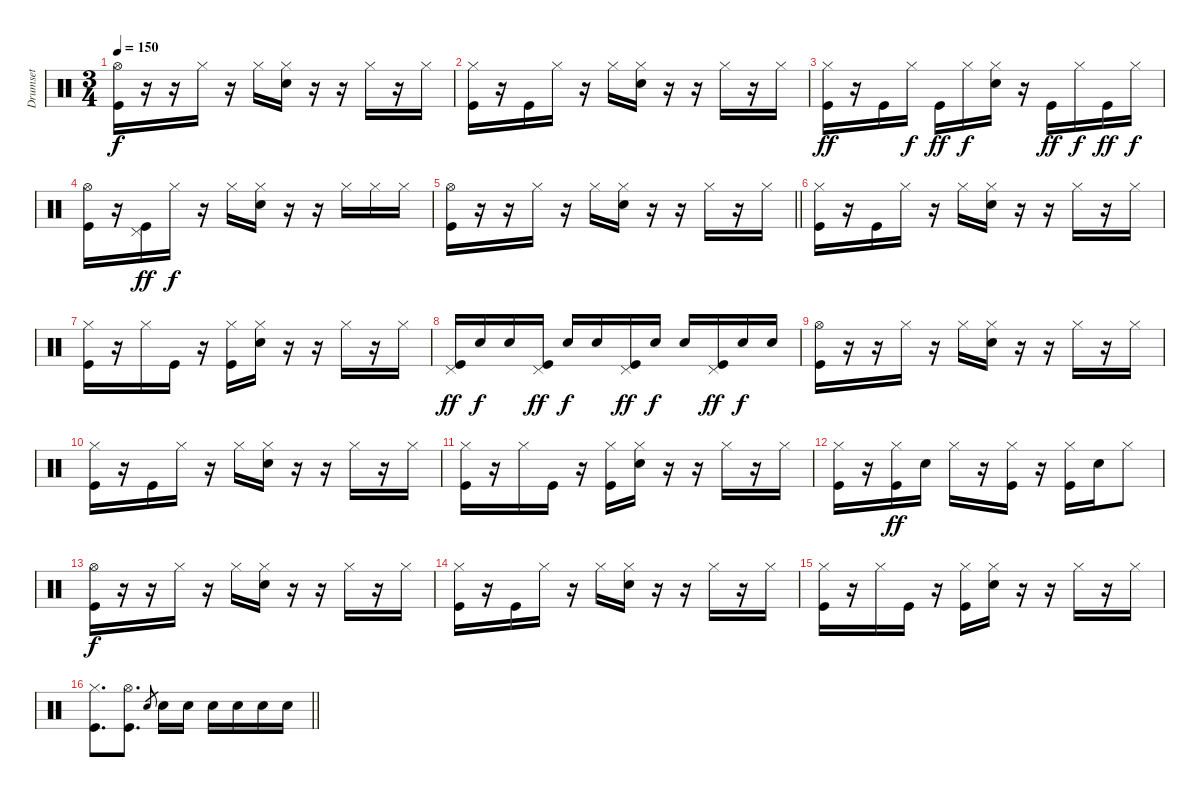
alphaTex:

\track ("Drumset" "Drumset") {instrument percussion}
\staff {score}
\articulation defaults
\ts (3 4)
\tempo 150
\clef neutral
\ks c
("Hi-Hat (open)" "Kick (hit)").16{dy f} r.16 r.16 "Hi-Hat (closed)".16 r.16 "Hi-Hat (closed)".16 ("Hi-Hat (closed)" "Snare (hit) 2").16 r.16 r.16 "Hi-Hat (closed)".16 r.16 "Hi-Hat (closed)".16 |
("Hi-Hat (closed)" "Kick (hit)").16 r.16 "Kick (hit)".16 "Hi-Hat (closed)".16 r.16 "Hi-Hat (closed)".16 ("Hi-Hat (closed)" "Snare (hit) 2").16 r.16 r.16 "Hi-Hat (closed)".16 r.16 "Hi-Hat (closed)".16 |
("Hi-Hat (closed)" "Kick (hit)").16{dy ff} r.16 "Kick (hit)".16 "Hi-Hat (closed)".16{dy f} "Kick (hit)".16{dy ff} "Hi-Hat (closed)".16{dy f} ("Hi-Hat (closed)" "Snare (hit) 2").16 r.16 "Kick (hit)".16{dy ff} "Hi-Hat (closed)".16{dy f} "Kick (hit)".16{dy ff} "Hi-Hat (closed)".16{dy f} |
("Hi-Hat (open)" "Kick (hit)").16 r.16 ("Pedal Hi-Hat (hit)" "Kick (hit)").16{dy ff} "Hi-Hat (closed)".16{dy f} r.16 "Hi-Hat (closed)".16 ("Hi-Hat (closed)" "Snare (hit) 2").16 r.16 r.16 "Hi-Hat (closed)".16 "Hi-Hat (closed)".16 "Hi-Hat (closed)".16 |
\barLineRight lightlight
("Hi-Hat (open)" "Kick (hit)").16 r.16 r.16 "Hi-Hat (closed)".16 r.16 "Hi-Hat (closed)".16 ("Hi-Hat (closed)" "Snare (hit) 2").16 r.16 r.16 "Hi-Hat (closed)".16 r.16 "Hi-Hat (closed)".16 |
("Hi-Hat (closed)" "Kick (hit)").16 r.16 "Kick (hit)".16 "Hi-Hat (closed)".16 r.16 "Hi-Hat (closed)".16 ("Hi-Hat (closed)" "Snare (hit) 2").16 r.16 r.16 "Hi-Hat (closed)".16 r.16 "Hi-Hat (closed)".16 |
("Hi-Hat (closed)" "Kick (hit)").16 r.16 "Hi-Hat (closed)".16 "Kick (hit)".16 r.16 ("Hi-Hat (closed)" "Kick (hit)").16 ("Hi-Hat (closed)" "Snare (hit) 2").16 r.16 r.16 "Hi-Hat (closed)".16 r.16 "Hi-Hat (closed)".16 |
("Pedal Hi-Hat (hit)" "Kick (hit)").16{dy ff} "Snare (hit) 2".16{dy f} "Snare (hit) 2".16 ("Pedal Hi-Hat (hit)" "Kick (hit)").16{dy ff} "Snare (hit) 2".16{dy f} "Snare (hit) 2".16 ("Pedal Hi-Hat (hit)" "Kick (hit)").16{dy ff} "Snare (hit) 2".16{dy f} "Snare (hit) 2".16 ("Pedal Hi-Hat (hit)" "Kick (hit)").16{dy ff} "Snare (hit) 2".16{dy f} "Snare (hit) 2".16 |
("Hi-Hat (open)" "Kick (hit)").16 r.16 r.16 "Hi-Hat (closed)".16 r.16 "Hi-Hat (closed)".16 ("Hi-Hat (closed)" "Snare (hit) 2").16 r.16 r.16 "Hi-Hat (closed)".16 r.16 "Hi-Hat (closed)".16 |
("Hi-Hat (closed)" "Kick (hit)").16 r.16 "Kick (hit)".16 "Hi-Hat (closed)".16 r.16 "Hi-Hat (closed)".16 ("Hi-Hat (closed)" "Snare (hit) 2").16 r.16 r.16 "Hi-Hat (closed)".16 r.16 "Hi-Hat (closed)".16 |
("Hi-Hat (closed)" "Kick (hit)").16 r.16 "Hi-Hat (closed)".16 "Kick (hit)".16 r.16 ("Hi-Hat (closed)" "Kick (hit)").16 ("Hi-Hat (closed)" "Snare (hit) 2").16 r.16 r.16 "Hi-Hat (closed)".16 r.16 "Hi-Hat (closed)".16 |
("Hi-Hat (closed)" "Kick (hit)").16 r.16 ("Hi-Hat (closed)" "Kick (hit)").16{dy ff} "Snare (hit) 2".16 "Hi-Hat (closed)".16 r.16 ("Hi-Hat (closed)" "Kick (hit)").16 r.16 ("Hi-Hat (closed)" "Kick (hit)").16 "Snare (hit) 2".16 "Hi-Hat (closed)".8 |
("Hi-Hat (open)" "Kick (hit)").16{dy f} r.16 r.16 "Hi-Hat (closed)".16 r.16 "Hi-Hat (closed)".16 ("Hi-Hat (closed)" "Snare (hit) 2").16 r.16 r.16 "Hi-Hat (closed)".16 r.16 "Hi-Hat (closed)".16 |
("Hi-Hat (closed)" "Kick (hit)").16 r.16 "Kick (hit)".16 "Hi-Hat (closed)".16 r.16 "Hi-Hat (closed)".16 ("Hi-Hat (closed)" "Snare (hit) 2").16 r.16 r.16 "Hi-Hat (closed)".16 r.16 "Hi-Hat (closed)".16 |
("Hi-Hat (closed)" "Kick (hit)").16 r.16 "Hi-Hat (closed)".16 "Kick (hit)".16 r.16 ("Hi-Hat (closed)" "Kick (hit)").16 ("Hi-Hat (closed)" "Snare (hit) 2").16 r.16 r.16 "Hi-Hat (closed)".16 r.16 "Hi-Hat (closed)".16 |
\barLineRight lightlight
("Hi-Hat (closed)" "Kick (hit)").8{d} ("Hi-Hat (open)" "Kick (hit)").8{d} "Snare (hit) 2".8{gr} "Snare (hit) 2".16 "Snare (hit) 2".16 "Snare (hit) 2".16 "Snare (hit) 2".16 "Snare (hit) 2".16 "Snare (hit) 2".16
